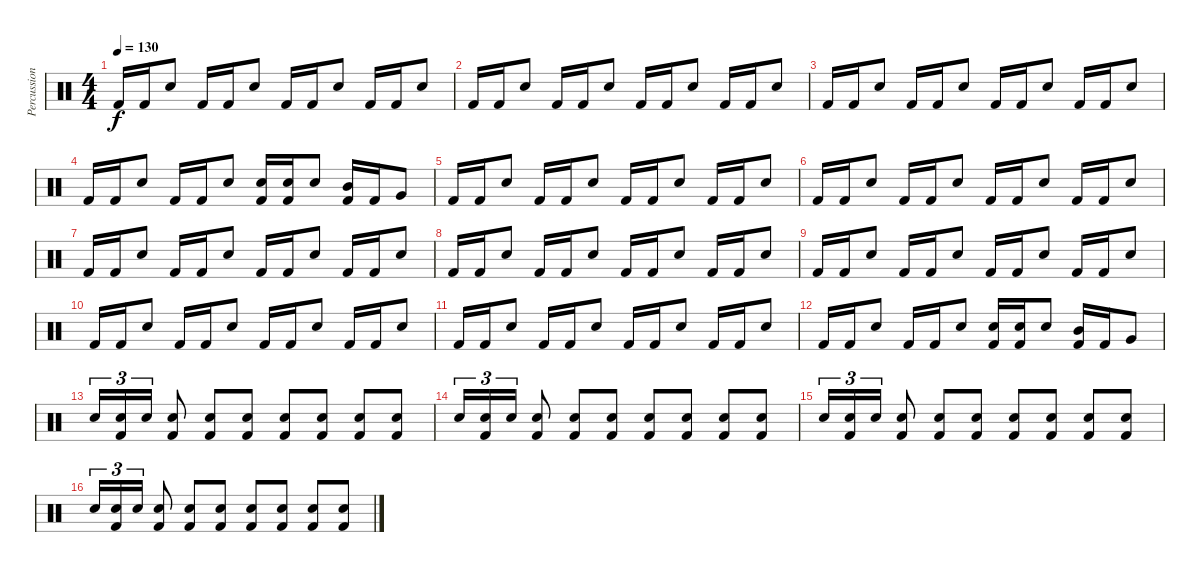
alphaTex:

\track ("Percussion" "Percussion") {instrument percussion}
\staff {score}
\articulation defaults
\ts (4 4)
\tempo 130
\clef neutral
\ks c "Kick (hit) 2".16{dy f} "Kick (hit) 2".16 "Snare (hit) 2".8 "Kick (hit) 2".16 "Kick (hit) 2".16 "Snare (hit) 2".8 "Kick (hit) 2".16 "Kick (hit) 2".16 "Snare (hit) 2".8 "Kick (hit) 2".16 "Kick (hit) 2".16 "Snare (hit) 2".8
|
"Kick (hit) 2".16 "Kick (hit) 2".16 "Snare (hit) 2".8 "Kick (hit) 2".16 "Kick (hit) 2".16 "Snare (hit) 2".8 "Kick (hit) 2".16 "Kick (hit) 2".16 "Snare (hit) 2".8 "Kick (hit) 2".16 "Kick (hit) 2".16 "Snare (hit) 2".8 |
"Kick (hit) 2".16 "Kick (hit) 2".16 "Snare (hit) 2".8 "Kick (hit) 2".16 "Kick (hit) 2".16 "Snare (hit) 2".8 "Kick (hit) 2".16 "Kick (hit) 2".16 "Snare (hit) 2".8 "Kick (hit) 2".16 "Kick (hit) 2".16 "Snare (hit) 2".8 |
"Kick (hit) 2".16 "Kick (hit) 2".16 "Snare (hit) 2".8 "Kick (hit) 2".16 "Kick (hit) 2".16 "Snare (hit) 2".8 ("Snare (hit) 2" "Kick (hit) 2").16 ("Snare (hit) 2" "Kick (hit) 2").16 "Snare (hit) 2".8 ("Mid Tom (hit)" "Kick (hit) 2").16 "Kick (hit) 2".16 "Very Low Tom (hit)".8 |
"Kick (hit) 2".16 "Kick (hit) 2".16 "Snare (hit) 2".8 "Kick (hit) 2".16 "Kick (hit) 2".16 "Snare (hit) 2".8 "Kick (hit) 2".16 "Kick (hit) 2".16 "Snare (hit) 2".8 "Kick (hit) 2".16 "Kick (hit) 2".16 "Snare (hit) 2".8 |
"Kick (hit) 2".16 "Kick (hit) 2".16 "Snare (hit) 2".8 "Kick (hit) 2".16 "Kick (hit) 2".16 "Snare (hit) 2".8 "Kick (hit) 2".16 "Kick (hit) 2".16 "Snare (hit) 2".8 "Kick (hit) 2".16 "Kick (hit) 2".16 "Snare (hit) 2".8 |
"Kick (hit) 2".16 "Kick (hit) 2".16 "Snare (hit) 2".8 "Kick (hit) 2".16 "Kick (hit) 2".16 "Snare (hit) 2".8 "Kick (hit) 2".16 "Kick (hit) 2".16 "Snare (hit) 2".8 "Kick (hit) 2".16 "Kick (hit) 2".16 "Snare (hit) 2".8 |
"Kick (hit) 2".16 "Kick (hit) 2".16 "Snare (hit) 2".8 "Kick (hit) 2".16 "Kick (hit) 2".16 "Snare (hit) 2".8 "Kick (hit) 2".16 "Kick (hit) 2".16 "Snare (hit) 2".8 "Kick (hit) 2".16 "Kick (hit) 2".16 "Snare (hit) 2".8 |
"Kick (hit) 2".16 "Kick (hit) 2".16 "Snare (hit) 2".8 "Kick (hit) 2".16 "Kick (hit) 2".16 "Snare (hit) 2".8 "Kick (hit) 2".16 "Kick (hit) 2".16 "Snare (hit) 2".8 "Kick (hit) 2".16 "Kick (hit) 2".16 "Snare (hit) 2".8 |
"Kick (hit) 2".16 "Kick (hit) 2".16 "Snare (hit) 2".8 "Kick (hit) 2".16 "Kick (hit) 2".16 "Snare (hit) 2".8 "Kick (hit) 2".16 "Kick (hit) 2".16 "Snare (hit) 2".8 "Kick (hit) 2".16 "Kick (hit) 2".16 "Snare (hit) 2".8 |
"Kick (hit) 2".16 "Kick (hit) 2".16 "Snare (hit) 2".8 "Kick (hit) 2".16 "Kick (hit) 2".16 "Snare (hit) 2".8 "Kick (hit) 2".16 "Kick (hit) 2".16 "Snare (hit) 2".8 "Kick (hit) 2".16 "Kick (hit) 2".16 "Snare (hit) 2".8 |
"Kick (hit) 2".16 "Kick (hit) 2".16 "Snare (hit) 2".8 "Kick (hit) 2".16 "Kick (hit) 2".16 "Snare (hit) 2".8 ("Snare (hit) 2" "Kick (hit) 2").16 ("Snare (hit) 2" "Kick (hit) 2").16 "Snare (hit) 2".8 ("Mid Tom (hit)" "Kick (hit) 2").16 "Kick (hit) 2".16 "Very Low Tom (hit)".8 |
"Snare (hit) 2".16{tu (3 2)} ("Snare (hit) 2" "Kick (hit) 2").16{tu (3 2)} "Snare (hit) 2".16{tu (3 2)} ("Snare (hit) 2" "Kick (hit) 2").8 ("Snare (hit) 2" "Kick (hit) 2").8 ("Snare (hit) 2" "Kick (hit) 2").8 ("Snare (hit) 2" "Kick (hit) 2").8 ("Snare (hit) 2" "Kick (hit) 2").8 ("Snare (hit) 2" "Kick (hit) 2").8 ("Snare (hit) 2" "Kick (hit) 2").8 |
"Snare (hit) 2".16{tu (3 2)} ("Snare (hit) 2" "Kick (hit) 2").16{tu (3 2)} "Snare (hit) 2".16{tu (3 2)} ("Snare (hit) 2" "Kick (hit) 2").8 ("Snare (hit) 2" "Kick (hit) 2").8 ("Snare (hit) 2" "Kick (hit) 2").8 ("Snare (hit) 2" "Kick (hit) 2").8 ("Snare (hit) 2" "Kick (hit) 2").8 ("Snare (hit) 2" "Kick (hit) 2").8 ("Snare (hit) 2" "Kick (hit) 2").8 |
"Snare (hit) 2".16{tu (3 2)} ("Snare (hit) 2" "Kick (hit) 2").16{tu (3 2)} "Snare (hit) 2".16{tu (3 2)} ("Snare (hit) 2" "Kick (hit) 2").8 ("Snare (hit) 2" "Kick (hit) 2").8 ("Snare (hit) 2" "Kick (hit) 2").8 ("Snare (hit) 2" "Kick (hit) 2").8 ("Snare (hit) 2" "Kick (hit) 2").8 ("Snare (hit) 2" "Kick (hit) 2").8 ("Snare (hit) 2" "Kick (hit) 2").8 |
"Snare (hit) 2".16{tu (3 2)} ("Snare (hit) 2" "Kick (hit) 2").16{tu (3 2)} "Snare (hit) 2".16{tu (3 2)} ("Snare (hit) 2" "Kick (hit) 2").8 ("Snare (hit) 2" "Kick (hit) 2").8 ("Snare (hit) 2" "Kick (hit) 2").8 ("Snare (hit) 2" "Kick (hit) 2").8 ("Snare (hit) 2" "Kick (hit) 2").8 ("Snare (hit) 2" "Kick (hit) 2").8 ("Snare (hit) 2" "Kick (hit) 2").8
